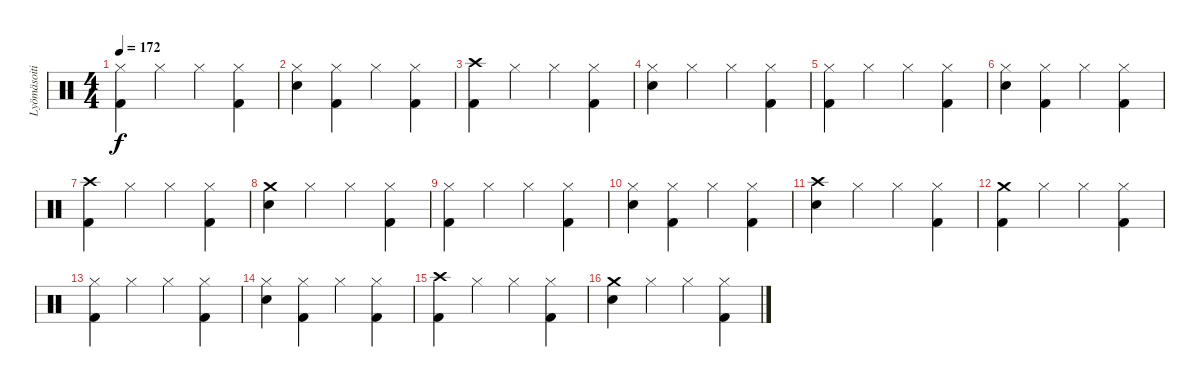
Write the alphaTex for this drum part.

\track ("Lyömäsoitin" "Lyömäsoiti") {instrument percussion}
\staff {score}
\articulation defaults
\ts (4 4)
\tempo 172
\clef neutral
\ks c
("Kick (hit) 2" "Hi-Hat (closed)").4{dy f} "Hi-Hat (closed)".4 "Hi-Hat (closed)".4 ("Kick (hit) 2" "Hi-Hat (closed)").4 |
("Hi-Hat (closed)" "Snare (hit) 2").4 ("Kick (hit) 2" "Hi-Hat (closed)").4 "Hi-Hat (closed)".4 ("Kick (hit) 2" "Hi-Hat (closed)").4 |
("Kick (hit) 2" "Crash high (hit)").4 "Hi-Hat (closed)".4 "Hi-Hat (closed)".4 ("Kick (hit) 2" "Hi-Hat (closed)").4 |
("Hi-Hat (closed)" "Snare (hit) 2").4 "Hi-Hat (closed)".4 "Hi-Hat (closed)".4 ("Kick (hit) 2" "Hi-Hat (closed)").4 |
("Kick (hit) 2" "Hi-Hat (closed)").4 "Hi-Hat (closed)".4 "Hi-Hat (closed)".4 ("Kick (hit) 2" "Hi-Hat (closed)").4 |
("Hi-Hat (closed)" "Snare (hit) 2").4 ("Kick (hit) 2" "Hi-Hat (closed)").4 "Hi-Hat (closed)".4 ("Kick (hit) 2" "Hi-Hat (closed)").4 |
("Kick (hit) 2" "Crash high (hit)").4 "Hi-Hat (closed)".4 "Hi-Hat (closed)".4 ("Kick (hit) 2" "Hi-Hat (closed)").4 |
("Crash medium (hit)" "Snare (hit) 2").4 "Hi-Hat (closed)".4 "Hi-Hat (closed)".4 ("Kick (hit) 2" "Hi-Hat (closed)").4 |
("Kick (hit) 2" "Hi-Hat (closed)").4 "Hi-Hat (closed)".4 "Hi-Hat (closed)".4 ("Kick (hit) 2" "Hi-Hat (closed)").4 |
("Hi-Hat (closed)" "Snare (hit) 2").4 ("Kick (hit) 2" "Hi-Hat (closed)").4 "Hi-Hat (closed)".4 ("Kick (hit) 2" "Hi-Hat (closed)").4 |
("Crash high (hit)" "Snare (hit) 2").4 "Hi-Hat (closed)".4 "Hi-Hat (closed)".4 ("Kick (hit) 2" "Hi-Hat (closed)").4 |
("Kick (hit) 2" "Crash medium (hit)").4 "Hi-Hat (closed)".4 "Hi-Hat (closed)".4 ("Kick (hit) 2" "Hi-Hat (closed)").4 |
("Kick (hit) 2" "Hi-Hat (closed)").4 "Hi-Hat (closed)".4 "Hi-Hat (closed)".4 ("Kick (hit) 2" "Hi-Hat (closed)").4 |
("Hi-Hat (closed)" "Snare (hit) 2").4 ("Kick (hit) 2" "Hi-Hat (closed)").4 "Hi-Hat (closed)".4 ("Kick (hit) 2" "Hi-Hat (closed)").4 |
("Kick (hit) 2" "Crash high (hit)").4 "Hi-Hat (closed)".4 "Hi-Hat (closed)".4 ("Kick (hit) 2" "Hi-Hat (closed)").4 |
("Crash medium (hit)" "Snare (hit) 2").4 "Hi-Hat (closed)".4 "Hi-Hat (closed)".4 ("Kick (hit) 2" "Hi-Hat (closed)").4
